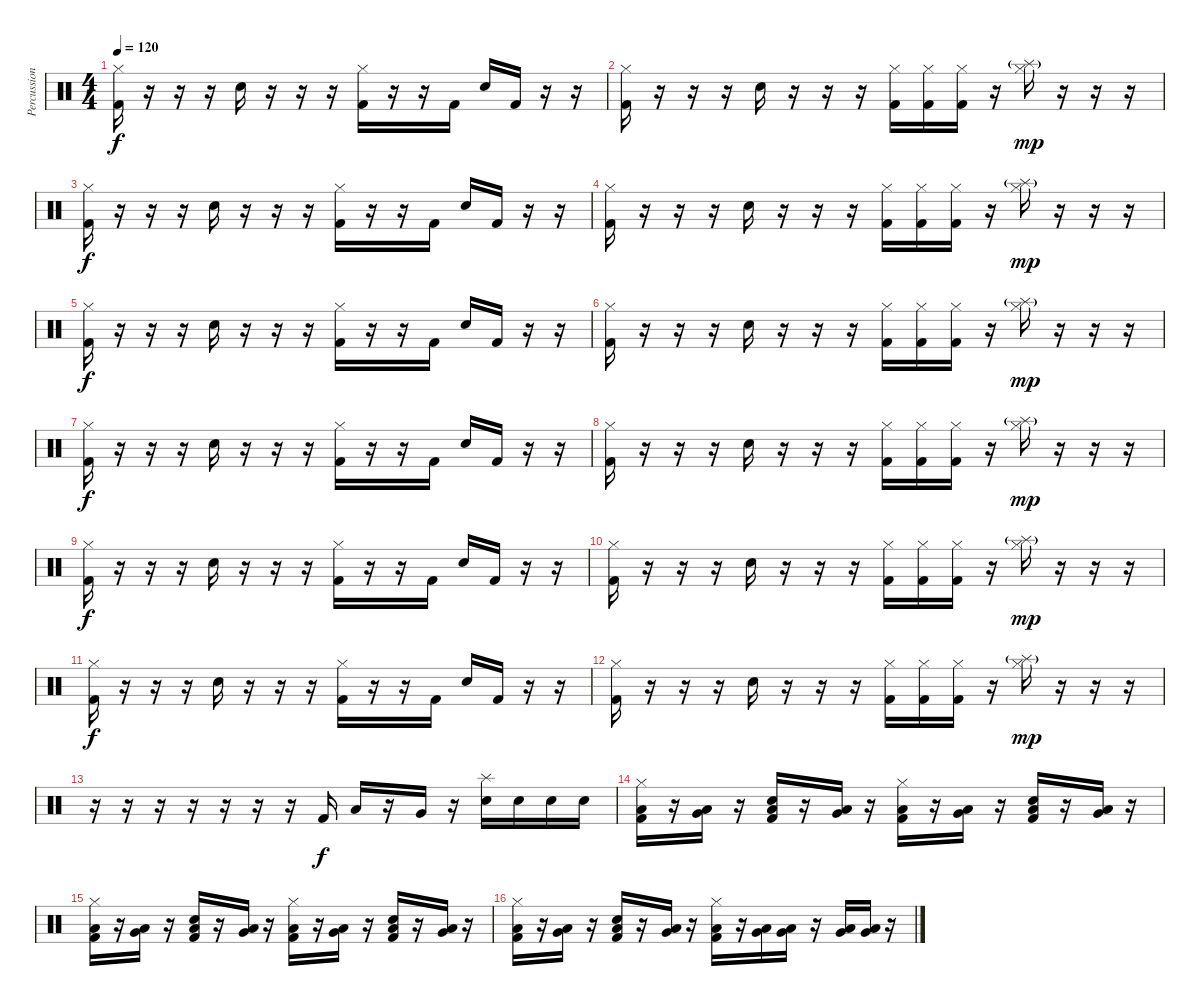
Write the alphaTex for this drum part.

\track ("Percussion" "Percussion") {instrument percussion}
\staff {score}
\articulation defaults
\ts (4 4)
\tempo 120
\clef neutral
\ks c
("Hi-Hat (closed)" "Kick (hit) 2").16{dy f} r.16 r.16 r.16 "Snare (hit) 2".16 r.16 r.16 r.16 ("Hi-Hat (closed)" "Kick (hit) 2").16 r.16 r.16 "Kick (hit) 2".16 "Snare (hit) 2".16 "Kick (hit) 2".16 r.16 r.16 |
("Hi-Hat (closed)" "Kick (hit) 2").16 r.16 r.16 r.16 "Snare (hit) 2".16 r.16 r.16 r.16 ("Hi-Hat (closed)" "Kick (hit) 2").16 ("Hi-Hat (closed)" "Kick (hit) 2").16 ("Hi-Hat (closed)" "Kick (hit) 2").16 r.16 ("Splash (hit)"{g} "Hi-Hat (closed)").16{dy mp} r.16 r.16 r.16 |
("Hi-Hat (closed)" "Kick (hit) 2").16{dy f} r.16 r.16 r.16 "Snare (hit) 2".16 r.16 r.16 r.16 ("Hi-Hat (closed)" "Kick (hit) 2").16 r.16 r.16 "Kick (hit) 2".16 "Snare (hit) 2".16 "Kick (hit) 2".16 r.16 r.16 |
("Hi-Hat (closed)" "Kick (hit) 2").16 r.16 r.16 r.16 "Snare (hit) 2".16 r.16 r.16 r.16 ("Hi-Hat (closed)" "Kick (hit) 2").16 ("Hi-Hat (closed)" "Kick (hit) 2").16 ("Hi-Hat (closed)" "Kick (hit) 2").16 r.16 ("Splash (hit)"{g} "Hi-Hat (closed)").16{dy mp} r.16 r.16 r.16 |
("Hi-Hat (closed)" "Kick (hit) 2").16{dy f} r.16 r.16 r.16 "Snare (hit) 2".16 r.16 r.16 r.16 ("Hi-Hat (closed)" "Kick (hit) 2").16 r.16 r.16 "Kick (hit) 2".16 "Snare (hit) 2".16 "Kick (hit) 2".16 r.16 r.16 |
("Hi-Hat (closed)" "Kick (hit) 2").16 r.16 r.16 r.16 "Snare (hit) 2".16 r.16 r.16 r.16 ("Hi-Hat (closed)" "Kick (hit) 2").16 ("Hi-Hat (closed)" "Kick (hit) 2").16 ("Hi-Hat (closed)" "Kick (hit) 2").16 r.16 ("Splash (hit)"{g} "Hi-Hat (closed)").16{dy mp} r.16 r.16 r.16 |
("Hi-Hat (closed)" "Kick (hit) 2").16{dy f} r.16 r.16 r.16 "Snare (hit) 2".16 r.16 r.16 r.16 ("Hi-Hat (closed)" "Kick (hit) 2").16 r.16 r.16 "Kick (hit) 2".16 "Snare (hit) 2".16 "Kick (hit) 2".16 r.16 r.16 |
("Hi-Hat (closed)" "Kick (hit) 2").16 r.16 r.16 r.16 "Snare (hit) 2".16 r.16 r.16 r.16 ("Hi-Hat (closed)" "Kick (hit) 2").16 ("Hi-Hat (closed)" "Kick (hit) 2").16 ("Hi-Hat (closed)" "Kick (hit) 2").16 r.16 ("Splash (hit)"{g} "Hi-Hat (closed)").16{dy mp} r.16 r.16 r.16 |
("Hi-Hat (closed)" "Kick (hit) 2").16{dy f} r.16 r.16 r.16 "Snare (hit) 2".16 r.16 r.16 r.16 ("Hi-Hat (closed)" "Kick (hit) 2").16 r.16 r.16 "Kick (hit) 2".16 "Snare (hit) 2".16 "Kick (hit) 2".16 r.16 r.16 |
("Hi-Hat (closed)" "Kick (hit) 2").16 r.16 r.16 r.16 "Snare (hit) 2".16 r.16 r.16 r.16 ("Hi-Hat (closed)" "Kick (hit) 2").16 ("Hi-Hat (closed)" "Kick (hit) 2").16 ("Hi-Hat (closed)" "Kick (hit) 2").16 r.16 ("Splash (hit)"{g} "Hi-Hat (closed)").16{dy mp} r.16 r.16 r.16 |
("Hi-Hat (closed)" "Kick (hit) 2").16{dy f} r.16 r.16 r.16 "Snare (hit) 2".16 r.16 r.16 r.16 ("Hi-Hat (closed)" "Kick (hit) 2").16 r.16 r.16 "Kick (hit) 2".16 "Snare (hit) 2".16 "Kick (hit) 2".16 r.16 r.16 |
("Hi-Hat (closed)" "Kick (hit) 2").16 r.16 r.16 r.16 "Snare (hit) 2".16 r.16 r.16 r.16 ("Hi-Hat (closed)" "Kick (hit) 2").16 ("Hi-Hat (closed)" "Kick (hit) 2").16 ("Hi-Hat (closed)" "Kick (hit) 2").16 r.16 ("Splash (hit)"{g} "Hi-Hat (closed)").16{dy mp} r.16 r.16 r.16 |
r.16 r.16 r.16 r.16 r.16 r.16 r.16 "Kick (hit) 2".16{dy f} "Low Tom (hit)".16 r.16 "Very Low Tom (hit)".16 r.16 ("Splash (hit)" "Snare (hit) 2").16 "Snare (hit) 2".16 "Snare (hit) 2".16 "Snare (hit) 2".16 |
("Hi-Hat (closed)" "Low Tom (hit)" "Kick (hit) 2").16 r.16 ("Very Low Tom (hit)" "Low Tom (hit)").16 r.16 ("Snare (hit) 2" "Low Tom (hit)" "Kick (hit) 2").16 r.16 ("Very Low Tom (hit)" "Low Tom (hit)").16 r.16 ("Hi-Hat (closed)" "Low Tom (hit)" "Kick (hit) 2").16 r.16 ("Very Low Tom (hit)" "Low Tom (hit)").16 r.16 ("Snare (hit) 2" "Low Tom (hit)" "Kick (hit) 2").16 r.16 ("Very Low Tom (hit)" "Low Tom (hit)").16 r.16 |
("Hi-Hat (closed)" "Low Tom (hit)" "Kick (hit) 2").16 r.16 ("Very Low Tom (hit)" "Low Tom (hit)").16 r.16 ("Snare (hit) 2" "Low Tom (hit)" "Kick (hit) 2").16 r.16 ("Very Low Tom (hit)" "Low Tom (hit)").16 r.16 ("Hi-Hat (closed)" "Low Tom (hit)" "Kick (hit) 2").16 r.16 ("Very Low Tom (hit)" "Low Tom (hit)").16 r.16 ("Snare (hit) 2" "Low Tom (hit)" "Kick (hit) 2").16 r.16 ("Very Low Tom (hit)" "Low Tom (hit)").16 r.16 |
("Hi-Hat (closed)" "Low Tom (hit)" "Kick (hit) 2").16 r.16 ("Very Low Tom (hit)" "Low Tom (hit)").16 r.16 ("Snare (hit) 2" "Low Tom (hit)" "Kick (hit) 2").16 r.16 ("Very Low Tom (hit)" "Low Tom (hit)").16 r.16 ("Hi-Hat (closed)" "Low Tom (hit)" "Kick (hit) 2").16 r.16 ("Very Low Tom (hit)" "Low Tom (hit)").16 ("Very Low Tom (hit)" "Low Tom (hit)").16 r.16 ("Very Low Tom (hit)" "Low Tom (hit)").16 ("Very Low Tom (hit)" "Low Tom (hit)").16 r.16
